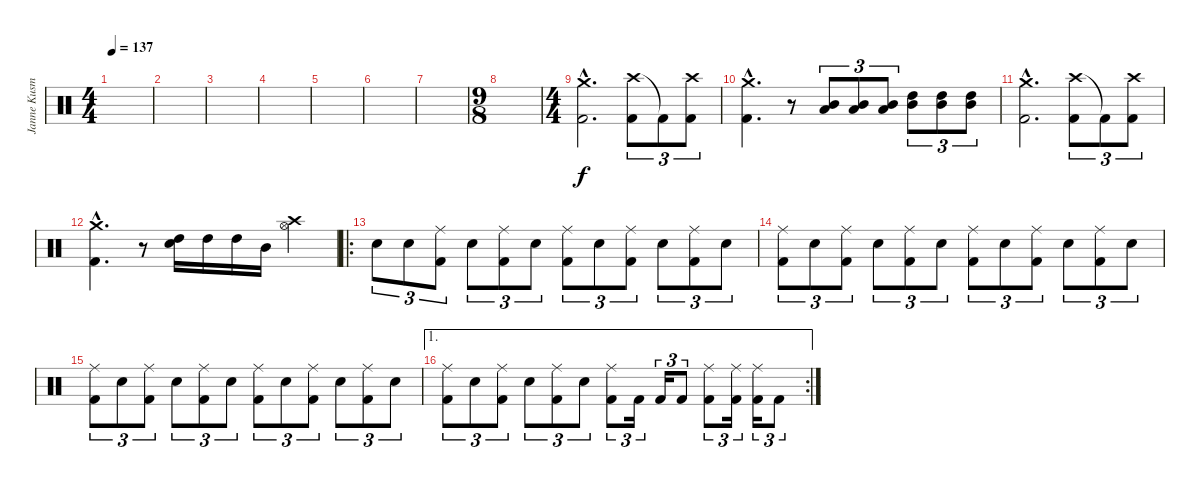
\track ("Janne Kusmin" "Janne Kusm") {instrument percussion}
\staff {score}
\articulation defaults
\ts (4 4)
\tempo 137
\clef neutral
\ks c
|
|
|
|
|
|
|
\ts (9 8)
|
\ts (4 4)
("Crash medium (hit)"{hac} "Kick (hit) 2"{hac}).2{d} ("Crash high (hit)" "Kick (hit) 2").8{tu (3 2)} "Kick (hit) 2"{t}.8{tu (3 2)} ("Crash high (hit)" "Kick (hit) 2").8{tu (3 2)} |
("Crash medium (hit)"{hac} "Kick (hit) 2"{hac}).4{d} r.8 ("Mid Tom (hit)" "Low Tom (hit)").8{tu (3 2)} ("Mid Tom (hit)" "Low Tom (hit)").8{tu (3 2)} ("Mid Tom (hit)" "Low Tom (hit)").8{tu (3 2)} ("Mid Tom (hit)" "High Tom (hit)").8{tu (3 2)} ("Mid Tom (hit)" "High Tom (hit)").8{tu (3 2)} ("Mid Tom (hit)" "High Tom (hit)").8{tu (3 2)} |
("Crash medium (hit)"{hac} "Kick (hit) 2"{hac}).2{d} ("Crash high (hit)" "Kick (hit) 2").8{tu (3 2)} "Kick (hit) 2"{t}.8{tu (3 2)} ("Crash high (hit)" "Kick (hit) 2").8{tu (3 2)} |
("Crash medium (hit)"{hac} "Kick (hit) 2"{hac}).4{d} r.8 ("High Tom (hit)" "Electric Snare (hit)").16 "High Tom (hit)".16 "High Tom (hit)".16 "Mid Tom (hit)".16 ("Crash high (hit)" "Hi-Hat (open)").4 |
\ro "Electric Snare (hit)".8{tu (3 2)} "Electric Snare (hit)".8{tu (3 2)}
("Ride (middle)" "Kick (hit) 2").8{tu (3 2)} "Electric Snare (hit)".8{tu (3 2)} ("Ride (middle)" "Kick (hit) 2").8{tu (3 2)} "Electric Snare (hit)".8{tu (3 2)} ("Ride (middle)" "Kick (hit) 2").8{tu (3 2)} "Electric Snare (hit)".8{tu (3 2)} ("Ride (middle)" "Kick (hit) 2").8{tu (3 2)} "Electric Snare (hit)".8{tu (3 2)} ("Ride (middle)" "Kick (hit) 2").8{tu (3 2)} "Electric Snare (hit)".8{tu (3 2)} |
("Ride (middle)" "Kick (hit) 2").8{tu (3 2)} "Electric Snare (hit)".8{tu (3 2)} ("Ride (middle)" "Kick (hit) 2").8{tu (3 2)} "Electric Snare (hit)".8{tu (3 2)} ("Ride (middle)" "Kick (hit) 2").8{tu (3 2)} "Electric Snare (hit)".8{tu (3 2)} ("Ride (middle)" "Kick (hit) 2").8{tu (3 2)} "Electric Snare (hit)".8{tu (3 2)} ("Ride (middle)" "Kick (hit) 2").8{tu (3 2)} "Electric Snare (hit)".8{tu (3 2)} ("Ride (middle)" "Kick (hit) 2").8{tu (3 2)} "Electric Snare (hit)".8{tu (3 2)} |
("Ride (middle)" "Kick (hit) 2").8{tu (3 2)} "Electric Snare (hit)".8{tu (3 2)} ("Ride (middle)" "Kick (hit) 2").8{tu (3 2)} "Electric Snare (hit)".8{tu (3 2)} ("Ride (middle)" "Kick (hit) 2").8{tu (3 2)} "Electric Snare (hit)".8{tu (3 2)} ("Ride (middle)" "Kick (hit) 2").8{tu (3 2)} "Electric Snare (hit)".8{tu (3 2)} ("Ride (middle)" "Kick (hit) 2").8{tu (3 2)} "Electric Snare (hit)".8{tu (3 2)} ("Ride (middle)" "Kick (hit) 2").8{tu (3 2)} "Electric Snare (hit)".8{tu (3 2)} |
\ae 1
\rc 2
("Ride (middle)" "Kick (hit) 2").8{tu (3 2)} "Electric Snare (hit)".8{tu (3 2)} ("Ride (middle)" "Kick (hit) 2").8{tu (3 2)} "Electric Snare (hit)".8{tu (3 2)} ("Ride (middle)" "Kick (hit) 2").8{tu (3 2)} "Electric Snare (hit)".8{tu (3 2)} ("Ride (middle)" "Kick (hit) 2").8{tu (3 2)} "Kick (hit) 2".16{tu (3 2)} "Kick (hit) 2".16{tu (3 2)} "Kick (hit) 2".8{tu (3 2)} ("Ride (middle)" "Kick (hit) 2").8{tu (3 2)} ("Ride (middle)" "Kick (hit) 2").16{tu (3 2)} ("Ride (middle)" "Kick (hit) 2").16{tu (3 2)} "Kick (hit) 2".8{tu (3 2)}
